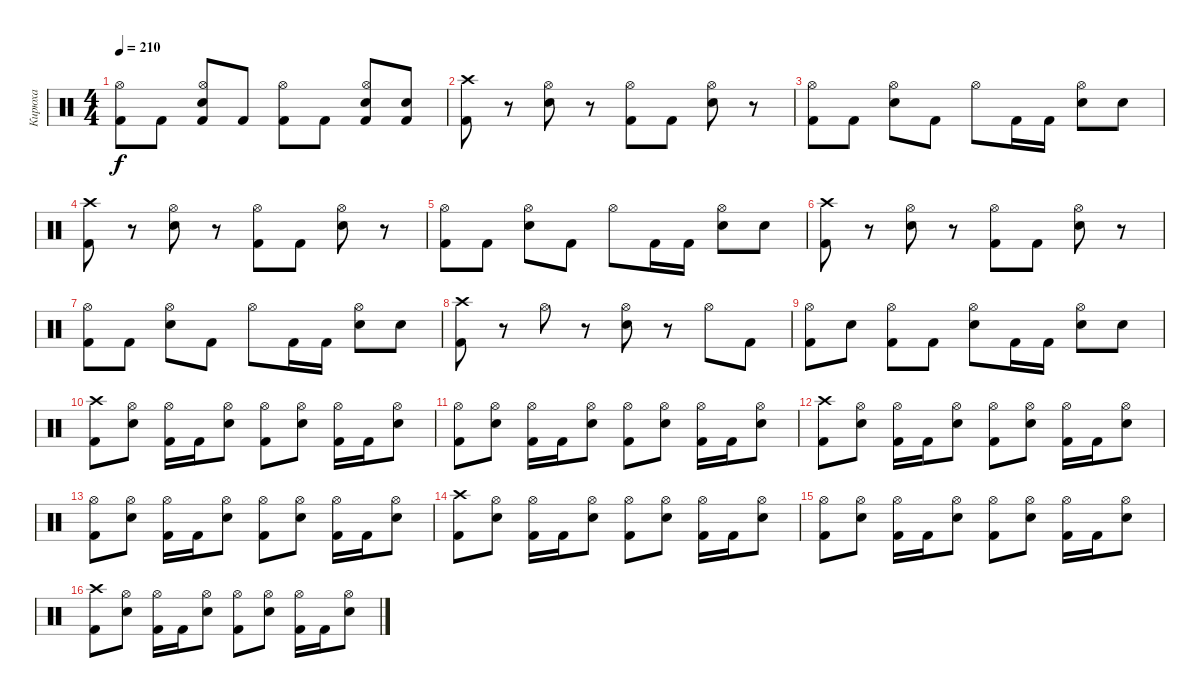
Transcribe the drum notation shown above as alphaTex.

\track ("Кирюха" "Кирюха") {instrument percussion}
\staff {score}
\articulation defaults
\ts (4 4)
\tempo 210
\clef neutral
\ks c
("Kick (hit) 2" "Hi-Hat (open)").8{dy f} "Kick (hit) 2".8 ("Kick (hit) 2" "Electric Snare (hit)" "Hi-Hat (open)").8 "Kick (hit) 2".8 ("Kick (hit) 2" "Hi-Hat (open)").8 "Kick (hit) 2".8 ("Kick (hit) 2" "Electric Snare (hit)" "Hi-Hat (open)").8 ("Kick (hit) 2" "Electric Snare (hit)").8 |
("Kick (hit) 2" "Crash high (hit)").8 r.8 ("Electric Snare (hit)" "Hi-Hat (open)").8 r.8 ("Kick (hit) 2" "Hi-Hat (open)").8 "Kick (hit) 2".8 ("Electric Snare (hit)" "Hi-Hat (open)").8 r.8 |
("Kick (hit) 2" "Hi-Hat (open)").8 "Kick (hit) 2".8 ("Electric Snare (hit)" "Hi-Hat (open)").8 "Kick (hit) 2".8 "Hi-Hat (open)".8 "Kick (hit) 2".16 "Kick (hit) 2".16 ("Electric Snare (hit)" "Hi-Hat (open)").8 "Electric Snare (hit)".8 |
("Kick (hit) 2" "Crash high (hit)").8 r.8 ("Electric Snare (hit)" "Hi-Hat (open)").8 r.8 ("Kick (hit) 2" "Hi-Hat (open)").8 "Kick (hit) 2".8 ("Electric Snare (hit)" "Hi-Hat (open)").8 r.8 |
("Kick (hit) 2" "Hi-Hat (open)").8 "Kick (hit) 2".8 ("Electric Snare (hit)" "Hi-Hat (open)").8 "Kick (hit) 2".8 "Hi-Hat (open)".8 "Kick (hit) 2".16 "Kick (hit) 2".16 ("Electric Snare (hit)" "Hi-Hat (open)").8 "Electric Snare (hit)".8 |
("Kick (hit) 2" "Crash high (hit)").8 r.8 ("Electric Snare (hit)" "Hi-Hat (open)").8 r.8 ("Kick (hit) 2" "Hi-Hat (open)").8 "Kick (hit) 2".8 ("Electric Snare (hit)" "Hi-Hat (open)").8 r.8 |
("Kick (hit) 2" "Hi-Hat (open)").8 "Kick (hit) 2".8 ("Electric Snare (hit)" "Hi-Hat (open)").8 "Kick (hit) 2".8 "Hi-Hat (open)".8 "Kick (hit) 2".16 "Kick (hit) 2".16 ("Electric Snare (hit)" "Hi-Hat (open)").8 "Electric Snare (hit)".8 |
("Kick (hit) 2" "Crash high (hit)").8 r.8 "Hi-Hat (open)".8 r.8 ("Electric Snare (hit)" "Hi-Hat (open)").8 r.8 "Hi-Hat (open)".8 "Kick (hit) 2".8 |
("Kick (hit) 2" "Hi-Hat (open)").8 "Electric Snare (hit)".8 ("Kick (hit) 2" "Hi-Hat (open)").8 "Kick (hit) 2".8 ("Electric Snare (hit)" "Hi-Hat (open)").8 "Kick (hit) 2".16 "Kick (hit) 2".16 ("Electric Snare (hit)" "Hi-Hat (open)").8 "Electric Snare (hit)".8 |
("Kick (hit) 2" "Crash high (hit)").8 ("Electric Snare (hit)" "Hi-Hat (open)").8 ("Kick (hit) 2" "Hi-Hat (open)").16 "Kick (hit) 2".16 ("Electric Snare (hit)" "Hi-Hat (open)").8 ("Kick (hit) 2" "Hi-Hat (open)").8 ("Electric Snare (hit)" "Hi-Hat (open)").8 ("Kick (hit) 2" "Hi-Hat (open)").16 "Kick (hit) 2".16 ("Electric Snare (hit)" "Hi-Hat (open)").8 |
("Kick (hit) 2" "Hi-Hat (open)").8 ("Electric Snare (hit)" "Hi-Hat (open)").8 ("Kick (hit) 2" "Hi-Hat (open)").16 "Kick (hit) 2".16 ("Electric Snare (hit)" "Hi-Hat (open)").8 ("Kick (hit) 2" "Hi-Hat (open)").8 ("Electric Snare (hit)" "Hi-Hat (open)").8 ("Kick (hit) 2" "Hi-Hat (open)").16 "Kick (hit) 2".16 ("Electric Snare (hit)" "Hi-Hat (open)").8 |
("Kick (hit) 2" "Crash high (hit)").8 ("Electric Snare (hit)" "Hi-Hat (open)").8 ("Kick (hit) 2" "Hi-Hat (open)").16 "Kick (hit) 2".16 ("Electric Snare (hit)" "Hi-Hat (open)").8 ("Kick (hit) 2" "Hi-Hat (open)").8 ("Electric Snare (hit)" "Hi-Hat (open)").8 ("Kick (hit) 2" "Hi-Hat (open)").16 "Kick (hit) 2".16 ("Electric Snare (hit)" "Hi-Hat (open)").8 |
("Kick (hit) 2" "Hi-Hat (open)").8 ("Electric Snare (hit)" "Hi-Hat (open)").8 ("Kick (hit) 2" "Hi-Hat (open)").16 "Kick (hit) 2".16 ("Electric Snare (hit)" "Hi-Hat (open)").8 ("Kick (hit) 2" "Hi-Hat (open)").8 ("Electric Snare (hit)" "Hi-Hat (open)").8 ("Kick (hit) 2" "Hi-Hat (open)").16 "Kick (hit) 2".16 ("Electric Snare (hit)" "Hi-Hat (open)").8 |
("Kick (hit) 2" "Crash high (hit)").8 ("Electric Snare (hit)" "Hi-Hat (open)").8 ("Kick (hit) 2" "Hi-Hat (open)").16 "Kick (hit) 2".16 ("Electric Snare (hit)" "Hi-Hat (open)").8 ("Kick (hit) 2" "Hi-Hat (open)").8 ("Electric Snare (hit)" "Hi-Hat (open)").8 ("Kick (hit) 2" "Hi-Hat (open)").16 "Kick (hit) 2".16 ("Electric Snare (hit)" "Hi-Hat (open)").8 |
("Kick (hit) 2" "Hi-Hat (open)").8 ("Electric Snare (hit)" "Hi-Hat (open)").8 ("Kick (hit) 2" "Hi-Hat (open)").16 "Kick (hit) 2".16 ("Electric Snare (hit)" "Hi-Hat (open)").8 ("Kick (hit) 2" "Hi-Hat (open)").8 ("Electric Snare (hit)" "Hi-Hat (open)").8 ("Kick (hit) 2" "Hi-Hat (open)").16 "Kick (hit) 2".16 ("Electric Snare (hit)" "Hi-Hat (open)").8 |
("Kick (hit) 2" "Crash high (hit)").8 ("Electric Snare (hit)" "Hi-Hat (open)").8 ("Kick (hit) 2" "Hi-Hat (open)").16 "Kick (hit) 2".16 ("Electric Snare (hit)" "Hi-Hat (open)").8 ("Kick (hit) 2" "Hi-Hat (open)").8 ("Electric Snare (hit)" "Hi-Hat (open)").8 ("Kick (hit) 2" "Hi-Hat (open)").16 "Kick (hit) 2".16 ("Electric Snare (hit)" "Hi-Hat (open)").8
